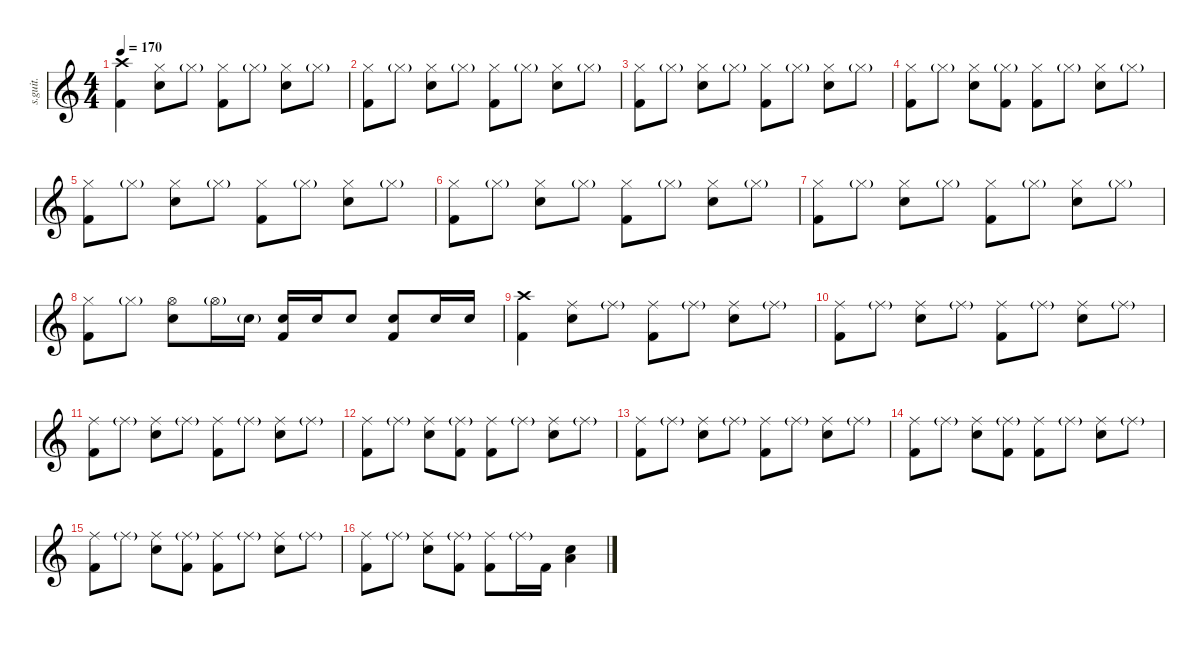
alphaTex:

\defaultSystemsLayout 4
\hideDynamics
\bracketExtendMode nobrackets
\track ("Drumkit" "s.guit.") {instrument percussion}
\staff {score}
\articulation defaults
\ts (4 4)
\tempo 170
\clef g2
\ks c
("Crash high (hit)" "Kick (hit) 2").4{lyrics (0 "") lyrics (1 "") lyrics (2 "") lyrics (3 "") lyrics (4 "") dy ff} ("Hi-Hat (closed)" "Snare (hit) 2").8{lyrics (0 "") lyrics (1 "") lyrics (2 "") lyrics (3 "") lyrics (4 "")} "Hi-Hat (closed)"{g}.8{lyrics (0 "") lyrics (1 "") lyrics (2 "") lyrics (3 "") lyrics (4 "")} ("Hi-Hat (closed)" "Kick (hit) 2").8{lyrics (0 "") lyrics (1 "") lyrics (2 "") lyrics (3 "") lyrics (4 "")} "Hi-Hat (closed)"{g}.8{lyrics (0 "") lyrics (1 "") lyrics (2 "") lyrics (3 "") lyrics (4 "")} ("Hi-Hat (closed)" "Snare (hit) 2").8{lyrics (0 "") lyrics (1 "") lyrics (2 "") lyrics (3 "") lyrics (4 "")} "Hi-Hat (closed)"{g}.8{lyrics (0 "") lyrics (1 "") lyrics (2 "") lyrics (3 "") lyrics (4 "")} |
("Hi-Hat (closed)" "Kick (hit) 2").8{lyrics (0 "") lyrics (1 "") lyrics (2 "") lyrics (3 "") lyrics (4 "")} "Hi-Hat (closed)"{g}.8{lyrics (0 "") lyrics (1 "") lyrics (2 "") lyrics (3 "") lyrics (4 "")} ("Hi-Hat (closed)" "Snare (hit) 2").8{lyrics (0 "") lyrics (1 "") lyrics (2 "") lyrics (3 "") lyrics (4 "")} "Hi-Hat (closed)"{g}.8{lyrics (0 "") lyrics (1 "") lyrics (2 "") lyrics (3 "") lyrics (4 "")} ("Hi-Hat (closed)" "Kick (hit) 2").8{lyrics (0 "") lyrics (1 "") lyrics (2 "") lyrics (3 "") lyrics (4 "")} "Hi-Hat (closed)"{g}.8{lyrics (0 "") lyrics (1 "") lyrics (2 "") lyrics (3 "") lyrics (4 "")} ("Hi-Hat (closed)" "Snare (hit) 2").8{lyrics (0 "") lyrics (1 "") lyrics (2 "") lyrics (3 "") lyrics (4 "")} "Hi-Hat (closed)"{g}.8{lyrics (0 "") lyrics (1 "") lyrics (2 "") lyrics (3 "") lyrics (4 "")} |
("Hi-Hat (closed)" "Kick (hit) 2").8{lyrics (0 "") lyrics (1 "") lyrics (2 "") lyrics (3 "") lyrics (4 "")} "Hi-Hat (closed)"{g}.8{lyrics (0 "") lyrics (1 "") lyrics (2 "") lyrics (3 "") lyrics (4 "")} ("Hi-Hat (closed)" "Snare (hit) 2").8{lyrics (0 "") lyrics (1 "") lyrics (2 "") lyrics (3 "") lyrics (4 "")} "Hi-Hat (closed)"{g}.8{lyrics (0 "") lyrics (1 "") lyrics (2 "") lyrics (3 "") lyrics (4 "")} ("Hi-Hat (closed)" "Kick (hit) 2").8{lyrics (0 "") lyrics (1 "") lyrics (2 "") lyrics (3 "") lyrics (4 "")} "Hi-Hat (closed)"{g}.8{lyrics (0 "") lyrics (1 "") lyrics (2 "") lyrics (3 "") lyrics (4 "")} ("Hi-Hat (closed)" "Snare (hit) 2").8{lyrics (0 "") lyrics (1 "") lyrics (2 "") lyrics (3 "") lyrics (4 "")} "Hi-Hat (closed)"{g}.8{lyrics (0 "") lyrics (1 "") lyrics (2 "") lyrics (3 "") lyrics (4 "")} |
("Hi-Hat (closed)" "Kick (hit) 2").8{lyrics (0 "") lyrics (1 "") lyrics (2 "") lyrics (3 "") lyrics (4 "")} "Hi-Hat (closed)"{g}.8{lyrics (0 "") lyrics (1 "") lyrics (2 "") lyrics (3 "") lyrics (4 "")} ("Hi-Hat (closed)" "Snare (hit) 2").8{lyrics (0 "") lyrics (1 "") lyrics (2 "") lyrics (3 "") lyrics (4 "")} ("Hi-Hat (closed)"{g} "Kick (hit) 2").8{lyrics (0 "") lyrics (1 "") lyrics (2 "") lyrics (3 "") lyrics (4 "")} ("Hi-Hat (closed)" "Kick (hit) 2").8{lyrics (0 "") lyrics (1 "") lyrics (2 "") lyrics (3 "") lyrics (4 "")} "Hi-Hat (closed)"{g}.8{lyrics (0 "") lyrics (1 "") lyrics (2 "") lyrics (3 "") lyrics (4 "")} ("Hi-Hat (closed)" "Snare (hit) 2").8{lyrics (0 "") lyrics (1 "") lyrics (2 "") lyrics (3 "") lyrics (4 "")} "Hi-Hat (closed)"{g}.8{lyrics (0 "") lyrics (1 "") lyrics (2 "") lyrics (3 "") lyrics (4 "")} |
("Hi-Hat (closed)" "Kick (hit) 2").8{lyrics (0 "") lyrics (1 "") lyrics (2 "") lyrics (3 "") lyrics (4 "")} "Hi-Hat (closed)"{g}.8{lyrics (0 "") lyrics (1 "") lyrics (2 "") lyrics (3 "") lyrics (4 "")} ("Hi-Hat (closed)" "Snare (hit) 2").8{lyrics (0 "") lyrics (1 "") lyrics (2 "") lyrics (3 "") lyrics (4 "")} "Hi-Hat (closed)"{g}.8{lyrics (0 "") lyrics (1 "") lyrics (2 "") lyrics (3 "") lyrics (4 "")} ("Hi-Hat (closed)" "Kick (hit) 2").8{lyrics (0 "") lyrics (1 "") lyrics (2 "") lyrics (3 "") lyrics (4 "")} "Hi-Hat (closed)"{g}.8{lyrics (0 "") lyrics (1 "") lyrics (2 "") lyrics (3 "") lyrics (4 "")} ("Hi-Hat (closed)" "Snare (hit) 2").8{lyrics (0 "") lyrics (1 "") lyrics (2 "") lyrics (3 "") lyrics (4 "")} "Hi-Hat (closed)"{g}.8{lyrics (0 "") lyrics (1 "") lyrics (2 "") lyrics (3 "") lyrics (4 "")} |
("Hi-Hat (closed)" "Kick (hit) 2").8{lyrics (0 "") lyrics (1 "") lyrics (2 "") lyrics (3 "") lyrics (4 "")} "Hi-Hat (closed)"{g}.8{lyrics (0 "") lyrics (1 "") lyrics (2 "") lyrics (3 "") lyrics (4 "")} ("Hi-Hat (closed)" "Snare (hit) 2").8{lyrics (0 "") lyrics (1 "") lyrics (2 "") lyrics (3 "") lyrics (4 "")} "Hi-Hat (closed)"{g}.8{lyrics (0 "") lyrics (1 "") lyrics (2 "") lyrics (3 "") lyrics (4 "")} ("Hi-Hat (closed)" "Kick (hit) 2").8{lyrics (0 "") lyrics (1 "") lyrics (2 "") lyrics (3 "") lyrics (4 "")} "Hi-Hat (closed)"{g}.8{lyrics (0 "") lyrics (1 "") lyrics (2 "") lyrics (3 "") lyrics (4 "")} ("Hi-Hat (closed)" "Snare (hit) 2").8{lyrics (0 "") lyrics (1 "") lyrics (2 "") lyrics (3 "") lyrics (4 "")} "Hi-Hat (closed)"{g}.8{lyrics (0 "") lyrics (1 "") lyrics (2 "") lyrics (3 "") lyrics (4 "")} |
("Hi-Hat (closed)" "Kick (hit) 2").8{lyrics (0 "") lyrics (1 "") lyrics (2 "") lyrics (3 "") lyrics (4 "")} "Hi-Hat (closed)"{g}.8{lyrics (0 "") lyrics (1 "") lyrics (2 "") lyrics (3 "") lyrics (4 "")} ("Hi-Hat (closed)" "Snare (hit) 2").8{lyrics (0 "") lyrics (1 "") lyrics (2 "") lyrics (3 "") lyrics (4 "")} "Hi-Hat (closed)"{g}.8{lyrics (0 "") lyrics (1 "") lyrics (2 "") lyrics (3 "") lyrics (4 "")} ("Hi-Hat (closed)" "Kick (hit) 2").8{lyrics (0 "") lyrics (1 "") lyrics (2 "") lyrics (3 "") lyrics (4 "")} "Hi-Hat (closed)"{g}.8{lyrics (0 "") lyrics (1 "") lyrics (2 "") lyrics (3 "") lyrics (4 "")} ("Hi-Hat (closed)" "Snare (hit) 2").8{lyrics (0 "") lyrics (1 "") lyrics (2 "") lyrics (3 "") lyrics (4 "")} "Hi-Hat (closed)"{g}.8{lyrics (0 "") lyrics (1 "") lyrics (2 "") lyrics (3 "") lyrics (4 "")} |
("Hi-Hat (closed)" "Kick (hit) 2").8{lyrics (0 "") lyrics (1 "") lyrics (2 "") lyrics (3 "") lyrics (4 "")} "Hi-Hat (closed)"{g}.8{lyrics (0 "") lyrics (1 "") lyrics (2 "") lyrics (3 "") lyrics (4 "")} ("Hi-Hat (open)" "Snare (hit) 2").8{lyrics (0 "") lyrics (1 "") lyrics (2 "") lyrics (3 "") lyrics (4 "")} "Hi-Hat (open)"{g}.16{lyrics (0 "") lyrics (1 "") lyrics (2 "") lyrics (3 "") lyrics (4 "")} "Snare (hit) 2"{g}.16{lyrics (0 "") lyrics (1 "") lyrics (2 "") lyrics (3 "") lyrics (4 "")} ("Snare (hit) 2" "Kick (hit) 2").16{lyrics (0 "") lyrics (1 "") lyrics (2 "") lyrics (3 "") lyrics (4 "")} "Snare (hit) 2".16{lyrics (0 "") lyrics (1 "") lyrics (2 "") lyrics (3 "") lyrics (4 "")} "Snare (hit) 2".8{lyrics (0 "") lyrics (1 "") lyrics (2 "") lyrics (3 "") lyrics (4 "")} ("Snare (hit) 2" "Kick (hit) 2").8{lyrics (0 "") lyrics (1 "") lyrics (2 "") lyrics (3 "") lyrics (4 "")} "Snare (hit) 2".16{lyrics (0 "") lyrics (1 "") lyrics (2 "") lyrics (3 "") lyrics (4 "")} "Snare (hit) 2".16{lyrics (0 "") lyrics (1 "") lyrics (2 "") lyrics (3 "") lyrics (4 "")} |
("Crash high (hit)" "Kick (hit) 2").4{lyrics (0 "") lyrics (1 "") lyrics (2 "") lyrics (3 "") lyrics (4 "")} ("Ride (middle)" "Snare (hit) 2").8{lyrics (0 "") lyrics (1 "") lyrics (2 "") lyrics (3 "") lyrics (4 "")} "Ride (middle)"{g}.8{lyrics (0 "") lyrics (1 "") lyrics (2 "") lyrics (3 "") lyrics (4 "")} ("Ride (middle)" "Kick (hit) 2").8{lyrics (0 "") lyrics (1 "") lyrics (2 "") lyrics (3 "") lyrics (4 "")} "Ride (middle)"{g}.8{lyrics (0 "") lyrics (1 "") lyrics (2 "") lyrics (3 "") lyrics (4 "")} ("Ride (middle)" "Snare (hit) 2").8{lyrics (0 "") lyrics (1 "") lyrics (2 "") lyrics (3 "") lyrics (4 "")} "Ride (middle)"{g}.8{lyrics (0 "") lyrics (1 "") lyrics (2 "") lyrics (3 "") lyrics (4 "")} |
("Ride (middle)" "Kick (hit) 2").8{lyrics (0 "") lyrics (1 "") lyrics (2 "") lyrics (3 "") lyrics (4 "")} "Ride (middle)"{g}.8{lyrics (0 "") lyrics (1 "") lyrics (2 "") lyrics (3 "") lyrics (4 "")} ("Ride (middle)" "Snare (hit) 2").8{lyrics (0 "") lyrics (1 "") lyrics (2 "") lyrics (3 "") lyrics (4 "")} "Ride (middle)"{g}.8{lyrics (0 "") lyrics (1 "") lyrics (2 "") lyrics (3 "") lyrics (4 "")} ("Ride (middle)" "Kick (hit) 2").8{lyrics (0 "") lyrics (1 "") lyrics (2 "") lyrics (3 "") lyrics (4 "")} "Ride (middle)"{g}.8{lyrics (0 "") lyrics (1 "") lyrics (2 "") lyrics (3 "") lyrics (4 "")} ("Ride (middle)" "Snare (hit) 2").8{lyrics (0 "") lyrics (1 "") lyrics (2 "") lyrics (3 "") lyrics (4 "")} "Ride (middle)"{g}.8{lyrics (0 "") lyrics (1 "") lyrics (2 "") lyrics (3 "") lyrics (4 "")} |
("Ride (middle)" "Kick (hit) 2").8{lyrics (0 "") lyrics (1 "") lyrics (2 "") lyrics (3 "") lyrics (4 "")} "Ride (middle)"{g}.8{lyrics (0 "") lyrics (1 "") lyrics (2 "") lyrics (3 "") lyrics (4 "")} ("Ride (middle)" "Snare (hit) 2").8{lyrics (0 "") lyrics (1 "") lyrics (2 "") lyrics (3 "") lyrics (4 "")} "Ride (middle)"{g}.8{lyrics (0 "") lyrics (1 "") lyrics (2 "") lyrics (3 "") lyrics (4 "")} ("Ride (middle)" "Kick (hit) 2").8{lyrics (0 "") lyrics (1 "") lyrics (2 "") lyrics (3 "") lyrics (4 "")} "Ride (middle)"{g}.8{lyrics (0 "") lyrics (1 "") lyrics (2 "") lyrics (3 "") lyrics (4 "")} ("Ride (middle)" "Snare (hit) 2").8{lyrics (0 "") lyrics (1 "") lyrics (2 "") lyrics (3 "") lyrics (4 "")} "Ride (middle)"{g}.8{lyrics (0 "") lyrics (1 "") lyrics (2 "") lyrics (3 "") lyrics (4 "")} |
("Ride (middle)" "Kick (hit) 2").8{lyrics (0 "") lyrics (1 "") lyrics (2 "") lyrics (3 "") lyrics (4 "")} "Ride (middle)"{g}.8{lyrics (0 "") lyrics (1 "") lyrics (2 "") lyrics (3 "") lyrics (4 "")} ("Ride (middle)" "Snare (hit) 2").8{lyrics (0 "") lyrics (1 "") lyrics (2 "") lyrics (3 "") lyrics (4 "")} ("Ride (middle)"{g} "Kick (hit) 2").8{lyrics (0 "") lyrics (1 "") lyrics (2 "") lyrics (3 "") lyrics (4 "")} ("Ride (middle)" "Kick (hit) 2").8{lyrics (0 "") lyrics (1 "") lyrics (2 "") lyrics (3 "") lyrics (4 "")} "Ride (middle)"{g}.8{lyrics (0 "") lyrics (1 "") lyrics (2 "") lyrics (3 "") lyrics (4 "")} ("Ride (middle)" "Snare (hit) 2").8{lyrics (0 "") lyrics (1 "") lyrics (2 "") lyrics (3 "") lyrics (4 "")} "Ride (middle)"{g}.8{lyrics (0 "") lyrics (1 "") lyrics (2 "") lyrics (3 "") lyrics (4 "")} |
("Ride (middle)" "Kick (hit) 2").8{lyrics (0 "") lyrics (1 "") lyrics (2 "") lyrics (3 "") lyrics (4 "")} "Ride (middle)"{g}.8{lyrics (0 "") lyrics (1 "") lyrics (2 "") lyrics (3 "") lyrics (4 "")} ("Ride (middle)" "Snare (hit) 2").8{lyrics (0 "") lyrics (1 "") lyrics (2 "") lyrics (3 "") lyrics (4 "")} "Ride (middle)"{g}.8{lyrics (0 "") lyrics (1 "") lyrics (2 "") lyrics (3 "") lyrics (4 "")} ("Ride (middle)" "Kick (hit) 2").8{lyrics (0 "") lyrics (1 "") lyrics (2 "") lyrics (3 "") lyrics (4 "")} "Ride (middle)"{g}.8{lyrics (0 "") lyrics (1 "") lyrics (2 "") lyrics (3 "") lyrics (4 "")} ("Ride (middle)" "Snare (hit) 2").8{lyrics (0 "") lyrics (1 "") lyrics (2 "") lyrics (3 "") lyrics (4 "")} "Ride (middle)"{g}.8{lyrics (0 "") lyrics (1 "") lyrics (2 "") lyrics (3 "") lyrics (4 "")} |
("Ride (middle)" "Kick (hit) 2").8{lyrics (0 "") lyrics (1 "") lyrics (2 "") lyrics (3 "") lyrics (4 "")} "Ride (middle)"{g}.8{lyrics (0 "") lyrics (1 "") lyrics (2 "") lyrics (3 "") lyrics (4 "")} ("Ride (middle)" "Snare (hit) 2").8{lyrics (0 "") lyrics (1 "") lyrics (2 "") lyrics (3 "") lyrics (4 "")} ("Ride (middle)"{g} "Kick (hit) 2").8{lyrics (0 "") lyrics (1 "") lyrics (2 "") lyrics (3 "") lyrics (4 "")} ("Ride (middle)" "Kick (hit) 2").8{lyrics (0 "") lyrics (1 "") lyrics (2 "") lyrics (3 "") lyrics (4 "")} "Ride (middle)"{g}.8{lyrics (0 "") lyrics (1 "") lyrics (2 "") lyrics (3 "") lyrics (4 "")} ("Ride (middle)" "Snare (hit) 2").8{lyrics (0 "") lyrics (1 "") lyrics (2 "") lyrics (3 "") lyrics (4 "")} "Ride (middle)"{g}.8{lyrics (0 "") lyrics (1 "") lyrics (2 "") lyrics (3 "") lyrics (4 "")} |
("Ride (middle)" "Kick (hit) 2").8{lyrics (0 "") lyrics (1 "") lyrics (2 "") lyrics (3 "") lyrics (4 "")} "Ride (middle)"{g}.8{lyrics (0 "") lyrics (1 "") lyrics (2 "") lyrics (3 "") lyrics (4 "")} ("Ride (middle)" "Snare (hit) 2").8{lyrics (0 "") lyrics (1 "") lyrics (2 "") lyrics (3 "") lyrics (4 "")} ("Ride (middle)"{g} "Kick (hit) 2").8{lyrics (0 "") lyrics (1 "") lyrics (2 "") lyrics (3 "") lyrics (4 "")} ("Ride (middle)" "Kick (hit) 2").8{lyrics (0 "") lyrics (1 "") lyrics (2 "") lyrics (3 "") lyrics (4 "")} "Ride (middle)"{g}.8{lyrics (0 "") lyrics (1 "") lyrics (2 "") lyrics (3 "") lyrics (4 "")} ("Ride (middle)" "Snare (hit) 2").8{lyrics (0 "") lyrics (1 "") lyrics (2 "") lyrics (3 "") lyrics (4 "")} "Ride (middle)"{g}.8{lyrics (0 "") lyrics (1 "") lyrics (2 "") lyrics (3 "") lyrics (4 "")} |
("Ride (middle)" "Kick (hit) 2").8{lyrics (0 "") lyrics (1 "") lyrics (2 "") lyrics (3 "") lyrics (4 "")} "Ride (middle)"{g}.8{lyrics (0 "") lyrics (1 "") lyrics (2 "") lyrics (3 "") lyrics (4 "")} ("Ride (middle)" "Snare (hit) 2").8{lyrics (0 "") lyrics (1 "") lyrics (2 "") lyrics (3 "") lyrics (4 "")} ("Ride (middle)"{g} "Kick (hit) 2").8{lyrics (0 "") lyrics (1 "") lyrics (2 "") lyrics (3 "") lyrics (4 "")} ("Ride (middle)" "Kick (hit) 2").8{lyrics (0 "") lyrics (1 "") lyrics (2 "") lyrics (3 "") lyrics (4 "")} "Ride (middle)"{g}.16{lyrics (0 "") lyrics (1 "") lyrics (2 "") lyrics (3 "") lyrics (4 "")} "Kick (hit) 2".16{lyrics (0 "") lyrics (1 "") lyrics (2 "") lyrics (3 "") lyrics (4 "")} ("Snare (hit) 2" "Low Floor Tom (hit)").4{lyrics (0 "") lyrics (1 "") lyrics (2 "") lyrics (3 "") lyrics (4 "")}
